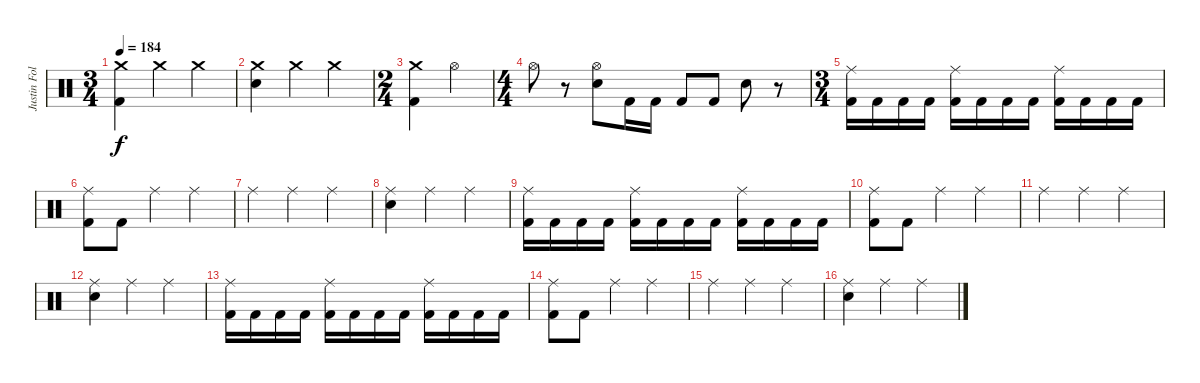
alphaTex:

\track ("Justin Foley" "Justin Fol") {instrument percussion}
\staff {score}
\articulation defaults
\ts (3 4)
\tempo 184
\clef neutral
\ks c
("Crash medium (hit)" "Kick (hit) 2").4{dy f} "Crash medium (hit)".4 "Crash medium (hit)".4 |
("Crash medium (hit)" "Electric Snare (hit)").4 "Crash medium (hit)".4 "Crash medium (hit)".4 |
\ts (2 4)
("Crash medium (hit)" "Kick (hit) 2").4 "Hi-Hat (open)".4 |
\ts (4 4)
"Hi-Hat (open)".8 r.8 ("Hi-Hat (open)" "Electric Snare (hit)").8 "Kick (hit) 2".16 "Kick (hit) 2".16 "Kick (hit) 2".8 "Kick (hit) 2".8 "Electric Snare (hit)".8 r.8 |
\ts (3 4)
("Ride (middle)" "Kick (hit) 2").16 "Kick (hit) 2".16 "Kick (hit) 2".16 "Kick (hit) 2".16 ("Ride (middle)" "Kick (hit) 2").16 "Kick (hit) 2".16 "Kick (hit) 2".16 "Kick (hit) 2".16 ("Ride (middle)" "Kick (hit) 2").16 "Kick (hit) 2".16 "Kick (hit) 2".16 "Kick (hit) 2".16 |
("Ride (middle)" "Kick (hit) 2").8 "Kick (hit) 2".8 "Ride (middle)".4 "Ride (middle)".4 |
"Ride (middle)".4 "Ride (middle)".4 "Ride (middle)".4 |
("Ride (middle)" "Electric Snare (hit)").4 "Ride (middle)".4 "Ride (middle)".4 |
("Ride (middle)" "Kick (hit) 2").16 "Kick (hit) 2".16 "Kick (hit) 2".16 "Kick (hit) 2".16 ("Ride (middle)" "Kick (hit) 2").16 "Kick (hit) 2".16 "Kick (hit) 2".16 "Kick (hit) 2".16 ("Ride (middle)" "Kick (hit) 2").16 "Kick (hit) 2".16 "Kick (hit) 2".16 "Kick (hit) 2".16 |
("Ride (middle)" "Kick (hit) 2").8 "Kick (hit) 2".8 "Ride (middle)".4 "Ride (middle)".4 |
"Ride (middle)".4 "Ride (middle)".4 "Ride (middle)".4 |
("Ride (middle)" "Electric Snare (hit)").4 "Ride (middle)".4 "Ride (middle)".4 |
("Ride (middle)" "Kick (hit) 2").16 "Kick (hit) 2".16 "Kick (hit) 2".16 "Kick (hit) 2".16 ("Ride (middle)" "Kick (hit) 2").16 "Kick (hit) 2".16 "Kick (hit) 2".16 "Kick (hit) 2".16 ("Ride (middle)" "Kick (hit) 2").16 "Kick (hit) 2".16 "Kick (hit) 2".16 "Kick (hit) 2".16 |
("Ride (middle)" "Kick (hit) 2").8 "Kick (hit) 2".8 "Ride (middle)".4 "Ride (middle)".4 |
"Ride (middle)".4 "Ride (middle)".4 "Ride (middle)".4 |
("Ride (middle)" "Electric Snare (hit)").4 "Ride (middle)".4 "Ride (middle)".4
